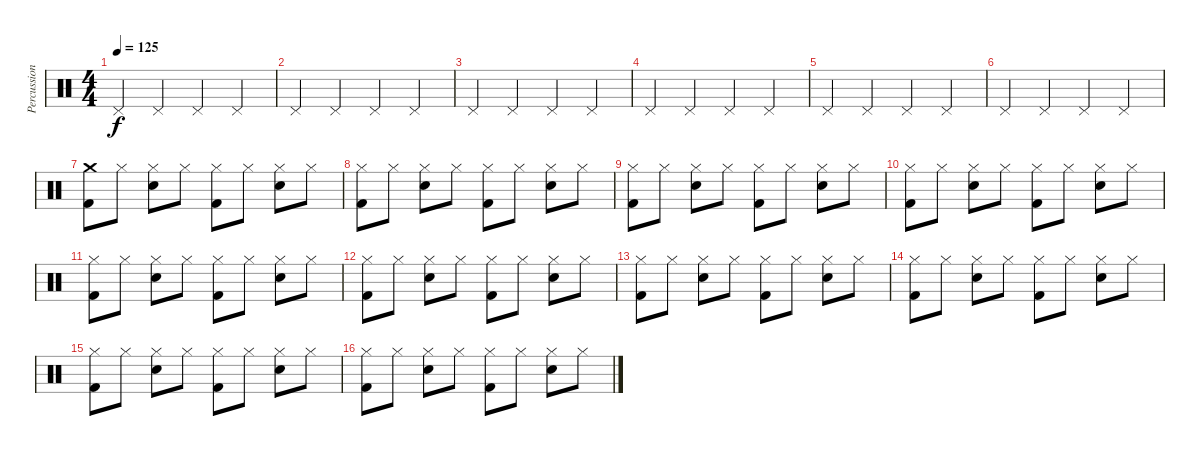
\track ("Percussions" "Percussion") {instrument percussion}
\staff {score}
\articulation defaults
\ts (4 4)
\tempo 125
\clef neutral
\ks c "Pedal Hi-Hat (hit)".4{dy f} "Pedal Hi-Hat (hit)".4 "Pedal Hi-Hat (hit)".4 "Pedal Hi-Hat (hit)".4
|
"Pedal Hi-Hat (hit)".4 "Pedal Hi-Hat (hit)".4 "Pedal Hi-Hat (hit)".4 "Pedal Hi-Hat (hit)".4 |
"Pedal Hi-Hat (hit)".4 "Pedal Hi-Hat (hit)".4 "Pedal Hi-Hat (hit)".4 "Pedal Hi-Hat (hit)".4 |
"Pedal Hi-Hat (hit)".4 "Pedal Hi-Hat (hit)".4 "Pedal Hi-Hat (hit)".4 "Pedal Hi-Hat (hit)".4 |
"Pedal Hi-Hat (hit)".4 "Pedal Hi-Hat (hit)".4 "Pedal Hi-Hat (hit)".4 "Pedal Hi-Hat (hit)".4 |
"Pedal Hi-Hat (hit)".4 "Pedal Hi-Hat (hit)".4 "Pedal Hi-Hat (hit)".4 "Pedal Hi-Hat (hit)".4 |
("Crash medium (hit)" "Kick (hit) 2").8 "Hi-Hat (closed)".8 ("Hi-Hat (closed)" "Snare (hit) 2").8 "Hi-Hat (closed)".8 ("Hi-Hat (closed)" "Kick (hit) 2").8 "Hi-Hat (closed)".8 ("Hi-Hat (closed)" "Snare (hit) 2").8 "Hi-Hat (closed)".8 |
("Hi-Hat (closed)" "Kick (hit) 2").8 "Hi-Hat (closed)".8 ("Hi-Hat (closed)" "Snare (hit) 2").8 "Hi-Hat (closed)".8 ("Hi-Hat (closed)" "Kick (hit) 2").8 "Hi-Hat (closed)".8 ("Hi-Hat (closed)" "Snare (hit) 2").8 "Hi-Hat (closed)".8 |
("Hi-Hat (closed)" "Kick (hit) 2").8 "Hi-Hat (closed)".8 ("Hi-Hat (closed)" "Snare (hit) 2").8 "Hi-Hat (closed)".8 ("Hi-Hat (closed)" "Kick (hit) 2").8 "Hi-Hat (closed)".8 ("Hi-Hat (closed)" "Snare (hit) 2").8 "Hi-Hat (closed)".8 |
("Hi-Hat (closed)" "Kick (hit) 2").8 "Hi-Hat (closed)".8 ("Hi-Hat (closed)" "Snare (hit) 2").8 "Hi-Hat (closed)".8 ("Hi-Hat (closed)" "Kick (hit) 2").8 "Hi-Hat (closed)".8 ("Hi-Hat (closed)" "Snare (hit) 2").8 "Hi-Hat (closed)".8 |
("Hi-Hat (closed)" "Kick (hit) 2").8 "Hi-Hat (closed)".8 ("Hi-Hat (closed)" "Snare (hit) 2").8 "Hi-Hat (closed)".8 ("Hi-Hat (closed)" "Kick (hit) 2").8 "Hi-Hat (closed)".8 ("Hi-Hat (closed)" "Snare (hit) 2").8 "Hi-Hat (closed)".8 |
("Hi-Hat (closed)" "Kick (hit) 2").8 "Hi-Hat (closed)".8 ("Hi-Hat (closed)" "Snare (hit) 2").8 "Hi-Hat (closed)".8 ("Hi-Hat (closed)" "Kick (hit) 2").8 "Hi-Hat (closed)".8 ("Hi-Hat (closed)" "Snare (hit) 2").8 "Hi-Hat (closed)".8 |
("Hi-Hat (closed)" "Kick (hit) 2").8 "Hi-Hat (closed)".8 ("Hi-Hat (closed)" "Snare (hit) 2").8 "Hi-Hat (closed)".8 ("Hi-Hat (closed)" "Kick (hit) 2").8 "Hi-Hat (closed)".8 ("Hi-Hat (closed)" "Snare (hit) 2").8 "Hi-Hat (closed)".8 |
("Hi-Hat (closed)" "Kick (hit) 2").8 "Hi-Hat (closed)".8 ("Hi-Hat (closed)" "Snare (hit) 2").8 "Hi-Hat (closed)".8 ("Hi-Hat (closed)" "Kick (hit) 2").8 "Hi-Hat (closed)".8 ("Hi-Hat (closed)" "Snare (hit) 2").8 "Hi-Hat (closed)".8 |
("Hi-Hat (closed)" "Kick (hit) 2").8 "Hi-Hat (closed)".8 ("Hi-Hat (closed)" "Snare (hit) 2").8 "Hi-Hat (closed)".8 ("Hi-Hat (closed)" "Kick (hit) 2").8 "Hi-Hat (closed)".8 ("Hi-Hat (closed)" "Snare (hit) 2").8 "Hi-Hat (closed)".8 |
("Hi-Hat (closed)" "Kick (hit) 2").8 "Hi-Hat (closed)".8 ("Hi-Hat (closed)" "Snare (hit) 2").8 "Hi-Hat (closed)".8 ("Hi-Hat (closed)" "Kick (hit) 2").8 "Hi-Hat (closed)".8 ("Hi-Hat (closed)" "Snare (hit) 2").8 "Hi-Hat (closed)".8
